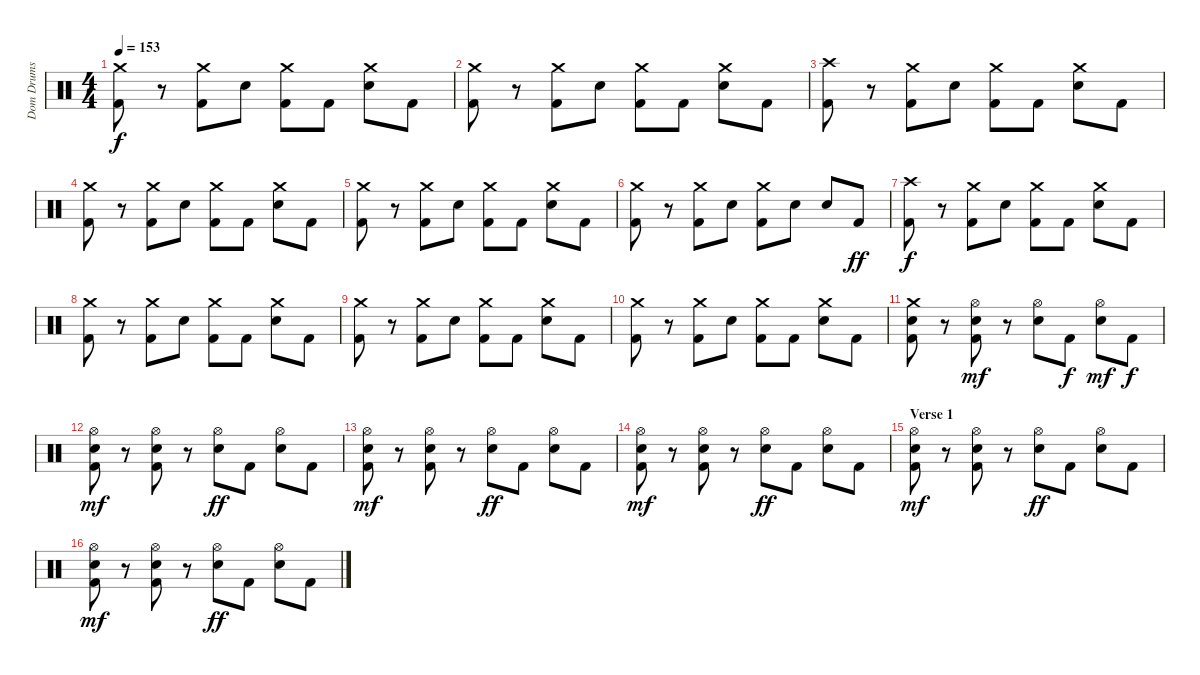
\track ("Dom Drums" "Dom Drums") {instrument percussion}
\staff {score}
\articulation defaults
\ts (4 4)
\tempo 153
\clef neutral
\ks c
("Crash medium (hit)" "Kick (hit) 2").8{dy f} r.8 ("Crash medium (hit)" "Kick (hit) 2").8 "Snare (hit) 2".8 ("Crash medium (hit)" "Kick (hit) 2").8 "Kick (hit) 2".8 ("Crash medium (hit)" "Snare (hit) 2").8 "Kick (hit) 2".8 |
("Crash medium (hit)" "Kick (hit) 2").8 r.8 ("Crash medium (hit)" "Kick (hit) 2").8 "Snare (hit) 2".8 ("Crash medium (hit)" "Kick (hit) 2").8 "Kick (hit) 2".8 ("Crash medium (hit)" "Snare (hit) 2").8 "Kick (hit) 2".8 |
("Crash high (hit)" "Kick (hit) 2").8 r.8 ("Crash medium (hit)" "Kick (hit) 2").8 "Snare (hit) 2".8 ("Crash medium (hit)" "Kick (hit) 2").8 "Kick (hit) 2".8 ("Crash medium (hit)" "Snare (hit) 2").8 "Kick (hit) 2".8 |
("Crash medium (hit)" "Kick (hit) 2").8 r.8 ("Crash medium (hit)" "Kick (hit) 2").8 "Snare (hit) 2".8 ("Crash medium (hit)" "Kick (hit) 2").8 "Kick (hit) 2".8 ("Crash medium (hit)" "Snare (hit) 2").8 "Kick (hit) 2".8 |
("Crash medium (hit)" "Kick (hit) 2").8 r.8 ("Crash medium (hit)" "Kick (hit) 2").8 "Snare (hit) 2".8 ("Crash medium (hit)" "Kick (hit) 2").8 "Kick (hit) 2".8 ("Crash medium (hit)" "Snare (hit) 2").8 "Kick (hit) 2".8 |
("Crash medium (hit)" "Kick (hit) 2").8 r.8 ("Crash medium (hit)" "Kick (hit) 2").8 "Snare (hit) 2".8 ("Crash medium (hit)" "Kick (hit) 2").8 "Snare (hit) 2".8 "Snare (hit) 2".8 "Kick (hit) 2".8{dy ff} |
("Crash high (hit)" "Kick (hit) 2").8{dy f} r.8 ("Crash medium (hit)" "Kick (hit) 2").8 "Snare (hit) 2".8 ("Crash medium (hit)" "Kick (hit) 2").8 "Kick (hit) 2".8 ("Crash medium (hit)" "Snare (hit) 2").8 "Kick (hit) 2".8 |
("Crash medium (hit)" "Kick (hit) 2").8 r.8 ("Crash medium (hit)" "Kick (hit) 2").8 "Snare (hit) 2".8 ("Crash medium (hit)" "Kick (hit) 2").8 "Kick (hit) 2".8 ("Crash medium (hit)" "Snare (hit) 2").8 "Kick (hit) 2".8 |
("Crash medium (hit)" "Kick (hit) 2").8 r.8 ("Crash medium (hit)" "Kick (hit) 2").8 "Snare (hit) 2".8 ("Crash medium (hit)" "Kick (hit) 2").8 "Kick (hit) 2".8 ("Crash medium (hit)" "Snare (hit) 2").8 "Kick (hit) 2".8 |
("Crash medium (hit)" "Kick (hit) 2").8 r.8 ("Crash medium (hit)" "Kick (hit) 2").8 "Snare (hit) 2".8 ("Crash medium (hit)" "Kick (hit) 2").8 "Kick (hit) 2".8 ("Crash medium (hit)" "Snare (hit) 2").8 "Kick (hit) 2".8 |
("Crash medium (hit)" "Kick (hit) 2" "Snare (hit) 2").8 r.8 ("Hi-Hat (open)" "Kick (hit) 2" "Snare (hit) 2").8{dy mf} r.8 ("Hi-Hat (open)" "Snare (hit) 2").8 "Kick (hit) 2".8{dy f} ("Hi-Hat (open)" "Snare (hit) 2").8{dy mf} "Kick (hit) 2".8{dy f} |
("Hi-Hat (open)" "Kick (hit) 2" "Snare (hit) 2").8{dy mf} r.8 ("Hi-Hat (open)" "Kick (hit) 2" "Snare (hit) 2").8 r.8 ("Hi-Hat (open)" "Snare (hit) 2").8{dy ff} "Kick (hit) 2".8 ("Hi-Hat (open)" "Snare (hit) 2").8 "Kick (hit) 2".8 |
("Hi-Hat (open)" "Kick (hit) 2" "Snare (hit) 2").8{dy mf} r.8 ("Hi-Hat (open)" "Kick (hit) 2" "Snare (hit) 2").8 r.8 ("Hi-Hat (open)" "Snare (hit) 2").8{dy ff} "Kick (hit) 2".8 ("Hi-Hat (open)" "Snare (hit) 2").8 "Kick (hit) 2".8 |
("Hi-Hat (open)" "Kick (hit) 2" "Snare (hit) 2").8{dy mf} r.8 ("Hi-Hat (open)" "Kick (hit) 2" "Snare (hit) 2").8 r.8 ("Hi-Hat (open)" "Snare (hit) 2").8{dy ff} "Kick (hit) 2".8 ("Hi-Hat (open)" "Snare (hit) 2").8 "Kick (hit) 2".8 |
\section ("" "Verse 1")
("Hi-Hat (open)" "Kick (hit) 2" "Snare (hit) 2").8{dy mf} r.8 ("Hi-Hat (open)" "Kick (hit) 2" "Snare (hit) 2").8 r.8 ("Hi-Hat (open)" "Snare (hit) 2").8{dy ff} "Kick (hit) 2".8 ("Hi-Hat (open)" "Snare (hit) 2").8 "Kick (hit) 2".8 |
("Hi-Hat (open)" "Kick (hit) 2" "Snare (hit) 2").8{dy mf} r.8 ("Hi-Hat (open)" "Kick (hit) 2" "Snare (hit) 2").8 r.8 ("Hi-Hat (open)" "Snare (hit) 2").8{dy ff} "Kick (hit) 2".8 ("Hi-Hat (open)" "Snare (hit) 2").8 "Kick (hit) 2".8
